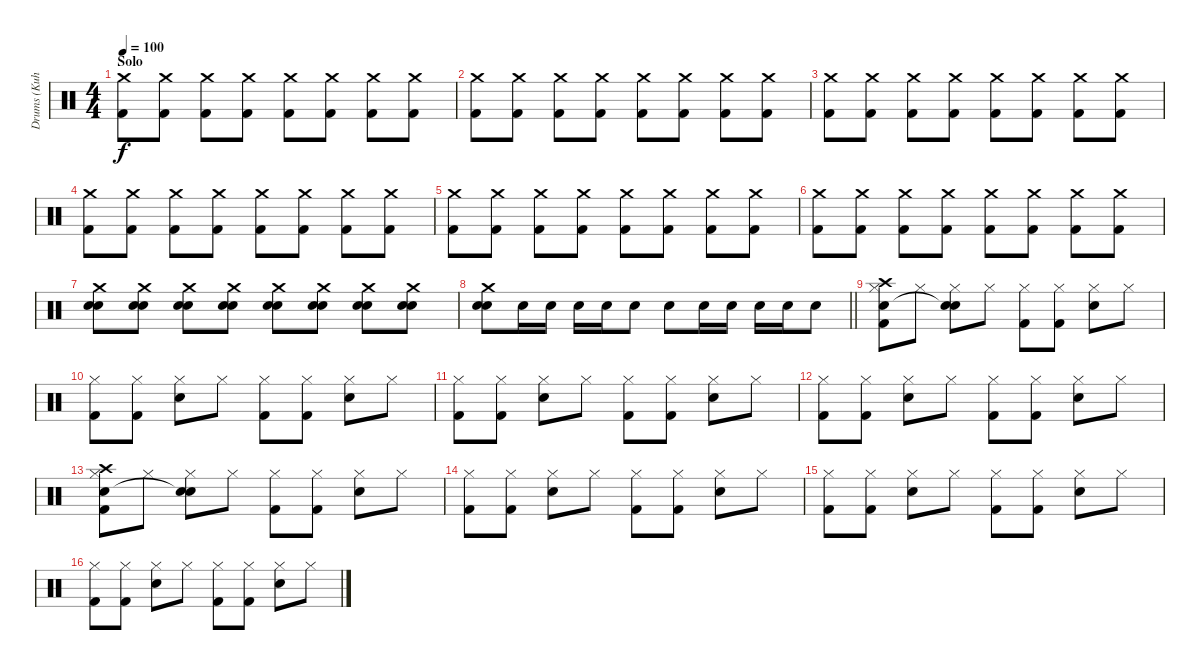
\track ("Drums (Kuhara)" "Drums (Kuh") {instrument percussion}
\staff {score}
\articulation defaults
\ts (4 4)
\section ("" "Solo")
\tempo 100
\clef neutral
\ks c
("Crash medium (hit)" "Kick (hit) 2").8{dy f volume 7} ("Crash medium (hit)" "Kick (hit) 2").8 ("Crash medium (hit)" "Kick (hit) 2").8 ("Crash medium (hit)" "Kick (hit) 2").8 ("Crash medium (hit)" "Kick (hit) 2").8 ("Crash medium (hit)" "Kick (hit) 2").8 ("Crash medium (hit)" "Kick (hit) 2").8 ("Crash medium (hit)" "Kick (hit) 2").8 |
("Crash medium (hit)" "Kick (hit) 2").8 ("Crash medium (hit)" "Kick (hit) 2").8 ("Crash medium (hit)" "Kick (hit) 2").8 ("Crash medium (hit)" "Kick (hit) 2").8 ("Crash medium (hit)" "Kick (hit) 2").8 ("Crash medium (hit)" "Kick (hit) 2").8 ("Crash medium (hit)" "Kick (hit) 2").8 ("Crash medium (hit)" "Kick (hit) 2").8 |
("Crash medium (hit)" "Kick (hit) 2").8 ("Crash medium (hit)" "Kick (hit) 2").8 ("Crash medium (hit)" "Kick (hit) 2").8 ("Crash medium (hit)" "Kick (hit) 2").8 ("Crash medium (hit)" "Kick (hit) 2").8 ("Crash medium (hit)" "Kick (hit) 2").8 ("Crash medium (hit)" "Kick (hit) 2").8 ("Crash medium (hit)" "Kick (hit) 2").8 |
("Crash medium (hit)" "Kick (hit) 2").8 ("Crash medium (hit)" "Kick (hit) 2").8 ("Crash medium (hit)" "Kick (hit) 2").8 ("Crash medium (hit)" "Kick (hit) 2").8 ("Crash medium (hit)" "Kick (hit) 2").8 ("Crash medium (hit)" "Kick (hit) 2").8 ("Crash medium (hit)" "Kick (hit) 2").8 ("Crash medium (hit)" "Kick (hit) 2").8 |
("Crash medium (hit)" "Kick (hit) 2").8{volume 7} ("Crash medium (hit)" "Kick (hit) 2").8 ("Crash medium (hit)" "Kick (hit) 2").8 ("Crash medium (hit)" "Kick (hit) 2").8 ("Crash medium (hit)" "Kick (hit) 2").8 ("Crash medium (hit)" "Kick (hit) 2").8 ("Crash medium (hit)" "Kick (hit) 2").8 ("Crash medium (hit)" "Kick (hit) 2").8 |
("Crash medium (hit)" "Kick (hit) 2").8 ("Crash medium (hit)" "Kick (hit) 2").8 ("Crash medium (hit)" "Kick (hit) 2").8 ("Crash medium (hit)" "Kick (hit) 2").8 ("Crash medium (hit)" "Kick (hit) 2").8 ("Crash medium (hit)" "Kick (hit) 2").8 ("Crash medium (hit)" "Kick (hit) 2").8 ("Crash medium (hit)" "Kick (hit) 2").8 |
("Crash medium (hit)" "Electric Snare (hit)" "Electric Snare (hit)").8{volume 13} ("Crash medium (hit)" "Electric Snare (hit)" "Electric Snare (hit)").8 ("Crash medium (hit)" "Electric Snare (hit)" "Electric Snare (hit)").8 ("Crash medium (hit)" "Electric Snare (hit)" "Electric Snare (hit)").8 ("Crash medium (hit)" "Electric Snare (hit)" "Electric Snare (hit)").8 ("Crash medium (hit)" "Electric Snare (hit)" "Electric Snare (hit)").8 ("Crash medium (hit)" "Electric Snare (hit)" "Electric Snare (hit)").8 ("Crash medium (hit)" "Electric Snare (hit)" "Electric Snare (hit)").8 |
\barLineRight lightlight
("Crash medium (hit)" "Electric Snare (hit)" "Electric Snare (hit)").8 "Electric Snare (hit)".16 "Electric Snare (hit)".16 "Electric Snare (hit)".16 "Electric Snare (hit)".16 "Electric Snare (hit)".8 "Electric Snare (hit)".8 "Electric Snare (hit)".16 "Electric Snare (hit)".16 "Electric Snare (hit)".16 "Electric Snare (hit)".16 "Electric Snare (hit)".8 |
("Hi-Hat (closed)" "Electric Snare (hit)" "Crash high (hit)" "Kick (hit) 2").8{volume 12} "Hi-Hat (closed)".8 ("Hi-Hat (closed)" "Snare (hit)"{t} "Electric Snare (hit)").8 "Hi-Hat (closed)".8 ("Hi-Hat (closed)" "Kick (hit) 2").8 ("Hi-Hat (closed)" "Kick (hit) 2").8 ("Hi-Hat (closed)" "Electric Snare (hit)").8 "Hi-Hat (closed)".8 |
("Hi-Hat (closed)" "Kick (hit) 2").8 ("Hi-Hat (closed)" "Kick (hit) 2").8 ("Hi-Hat (closed)" "Electric Snare (hit)").8 "Hi-Hat (closed)".8 ("Hi-Hat (closed)" "Kick (hit) 2").8 ("Hi-Hat (closed)" "Kick (hit) 2").8 ("Hi-Hat (closed)" "Electric Snare (hit)").8 "Hi-Hat (closed)".8 |
("Hi-Hat (closed)" "Kick (hit) 2").8 ("Hi-Hat (closed)" "Kick (hit) 2").8 ("Hi-Hat (closed)" "Electric Snare (hit)").8 "Hi-Hat (closed)".8 ("Hi-Hat (closed)" "Kick (hit) 2").8 ("Hi-Hat (closed)" "Kick (hit) 2").8 ("Hi-Hat (closed)" "Electric Snare (hit)").8 "Hi-Hat (closed)".8 |
("Hi-Hat (closed)" "Kick (hit) 2").8 ("Hi-Hat (closed)" "Kick (hit) 2").8 ("Hi-Hat (closed)" "Electric Snare (hit)").8 "Hi-Hat (closed)".8 ("Hi-Hat (closed)" "Kick (hit) 2").8 ("Hi-Hat (closed)" "Kick (hit) 2").8 ("Hi-Hat (closed)" "Electric Snare (hit)").8 "Hi-Hat (closed)".8 |
("Hi-Hat (closed)" "Electric Snare (hit)" "Crash high (hit)" "Kick (hit) 2").8 "Hi-Hat (closed)".8 ("Hi-Hat (closed)" "Snare (hit)"{t} "Electric Snare (hit)").8 "Hi-Hat (closed)".8 ("Hi-Hat (closed)" "Kick (hit) 2").8 ("Hi-Hat (closed)" "Kick (hit) 2").8 ("Hi-Hat (closed)" "Electric Snare (hit)").8 "Hi-Hat (closed)".8 |
("Hi-Hat (closed)" "Kick (hit) 2").8 ("Hi-Hat (closed)" "Kick (hit) 2").8 ("Hi-Hat (closed)" "Electric Snare (hit)").8 "Hi-Hat (closed)".8 ("Hi-Hat (closed)" "Kick (hit) 2").8 ("Hi-Hat (closed)" "Kick (hit) 2").8 ("Hi-Hat (closed)" "Electric Snare (hit)").8 "Hi-Hat (closed)".8 |
("Hi-Hat (closed)" "Kick (hit) 2").8 ("Hi-Hat (closed)" "Kick (hit) 2").8 ("Hi-Hat (closed)" "Electric Snare (hit)").8 "Hi-Hat (closed)".8 ("Hi-Hat (closed)" "Kick (hit) 2").8 ("Hi-Hat (closed)" "Kick (hit) 2").8 ("Hi-Hat (closed)" "Electric Snare (hit)").8 "Hi-Hat (closed)".8 |
("Hi-Hat (closed)" "Kick (hit) 2").8 ("Hi-Hat (closed)" "Kick (hit) 2").8 ("Hi-Hat (closed)" "Electric Snare (hit)").8 "Hi-Hat (closed)".8 ("Hi-Hat (closed)" "Kick (hit) 2").8 ("Hi-Hat (closed)" "Kick (hit) 2").8 ("Hi-Hat (closed)" "Electric Snare (hit)").8 "Hi-Hat (closed)".8
